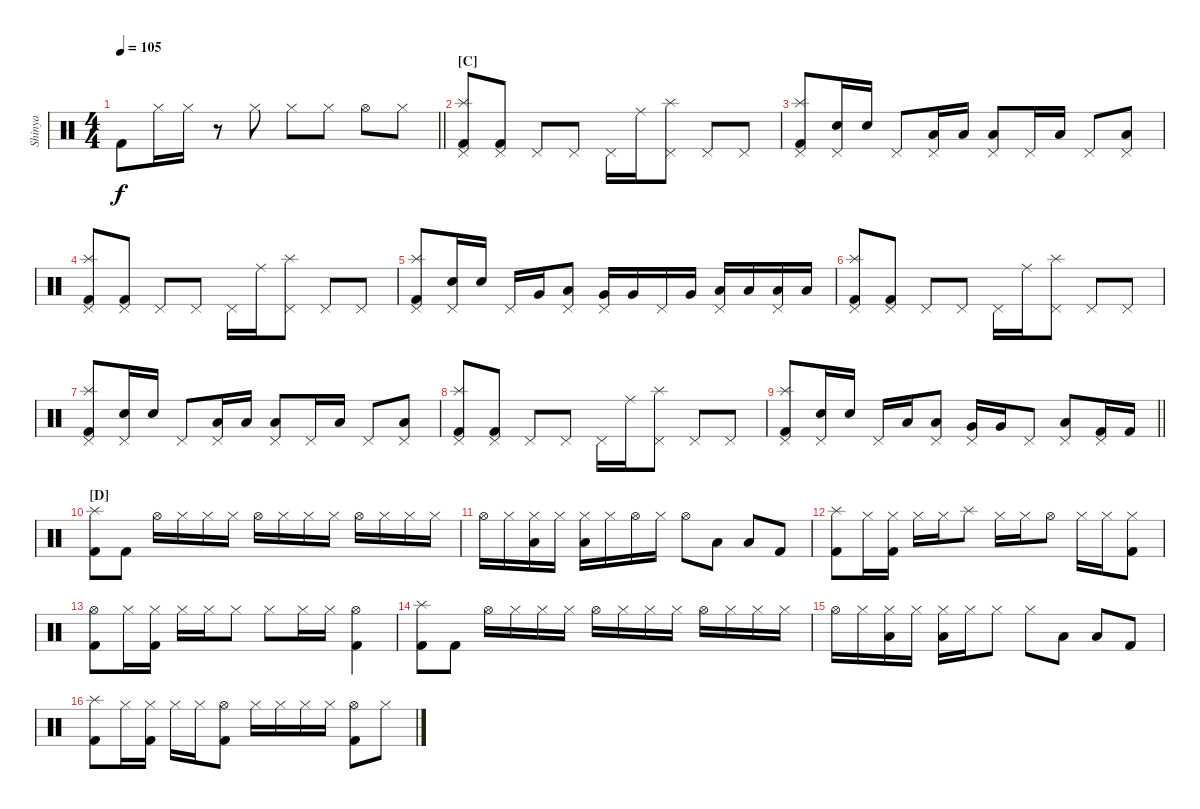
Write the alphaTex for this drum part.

\track ("Shinya" "Shinya") {instrument percussion}
\staff {score}
\articulation defaults
\ts (4 4)
\tempo 105
\clef neutral
\barLineRight lightlight
\ks c "Kick (hit) 2".8{dy f} "Hi-Hat (closed)".16 "Hi-Hat (closed)".16
r.8 "Hi-Hat (closed)".8 "Hi-Hat (closed)".8 "Hi-Hat (closed)".8 "Hi-Hat (open)".8 "Hi-Hat (closed)".8 |
\section ("" "[C]")
("Splash (hit)" "Pedal Hi-Hat (hit)" "Kick (hit) 2").8 ("Pedal Hi-Hat (hit)" "Kick (hit) 2").8 "Pedal Hi-Hat (hit)".8 "Pedal Hi-Hat (hit)".8 "Pedal Hi-Hat (hit)".16 "Ride (middle)".16 ("Splash (hit)" "Pedal Hi-Hat (hit)").8 "Pedal Hi-Hat (hit)".8 "Pedal Hi-Hat (hit)".8 |
("Splash (hit)" "Pedal Hi-Hat (hit)" "Kick (hit) 2").8 ("Snare (hit) 2" "Pedal Hi-Hat (hit)").16 "Snare (hit) 2".16 "Pedal Hi-Hat (hit)".8 ("Low Tom (hit)" "Pedal Hi-Hat (hit)").16 "Low Tom (hit)".16 ("Low Floor Tom (hit)" "Pedal Hi-Hat (hit)").8 "Pedal Hi-Hat (hit)".16 "Low Floor Tom (hit)".16 "Pedal Hi-Hat (hit)".8 ("Low Floor Tom (hit)" "Pedal Hi-Hat (hit)").8 |
("Splash (hit)" "Pedal Hi-Hat (hit)" "Kick (hit) 2").8 ("Pedal Hi-Hat (hit)" "Kick (hit) 2").8 "Pedal Hi-Hat (hit)".8 "Pedal Hi-Hat (hit)".8 "Pedal Hi-Hat (hit)".16 "Ride (middle)".16 ("Splash (hit)" "Pedal Hi-Hat (hit)").8 "Pedal Hi-Hat (hit)".8 "Pedal Hi-Hat (hit)".8 |
("Splash (hit)" "Pedal Hi-Hat (hit)" "Kick (hit) 2").8 ("Snare (hit) 2" "Pedal Hi-Hat (hit)").16 "Snare (hit) 2".16 "Pedal Hi-Hat (hit)".16 "Very Low Tom (hit)".16 ("Low Tom (hit)" "Pedal Hi-Hat (hit)").8 ("Very Low Tom (hit)" "Pedal Hi-Hat (hit)").16 "Very Low Tom (hit)".16 "Pedal Hi-Hat (hit)".16 "Very Low Tom (hit)".16 ("Low Floor Tom (hit)" "Pedal Hi-Hat (hit)").16 "Low Floor Tom (hit)".16 ("Low Floor Tom (hit)" "Pedal Hi-Hat (hit)").16 "Low Floor Tom (hit)".16 |
("Splash (hit)" "Pedal Hi-Hat (hit)" "Kick (hit) 2").8 ("Pedal Hi-Hat (hit)" "Kick (hit) 2").8 "Pedal Hi-Hat (hit)".8 "Pedal Hi-Hat (hit)".8 "Pedal Hi-Hat (hit)".16 "Ride (middle)".16 ("Splash (hit)" "Pedal Hi-Hat (hit)").8 "Pedal Hi-Hat (hit)".8 "Pedal Hi-Hat (hit)".8 |
("Splash (hit)" "Pedal Hi-Hat (hit)" "Kick (hit) 2").8 ("Snare (hit) 2" "Pedal Hi-Hat (hit)").16 "Snare (hit) 2".16 "Pedal Hi-Hat (hit)".8 ("Low Tom (hit)" "Pedal Hi-Hat (hit)").16 "Low Tom (hit)".16 ("Low Floor Tom (hit)" "Pedal Hi-Hat (hit)").8 "Pedal Hi-Hat (hit)".16 "Low Floor Tom (hit)".16 "Pedal Hi-Hat (hit)".8 ("Low Floor Tom (hit)" "Pedal Hi-Hat (hit)").8 |
("Splash (hit)" "Pedal Hi-Hat (hit)" "Kick (hit) 2").8 ("Pedal Hi-Hat (hit)" "Kick (hit) 2").8 "Pedal Hi-Hat (hit)".8 "Pedal Hi-Hat (hit)".8 "Pedal Hi-Hat (hit)".16 "Ride (middle)".16 ("Splash (hit)" "Pedal Hi-Hat (hit)").8 "Pedal Hi-Hat (hit)".8 "Pedal Hi-Hat (hit)".8 |
\barLineRight lightlight
("Splash (hit)" "Pedal Hi-Hat (hit)" "Kick (hit) 2").8 ("Snare (hit) 2" "Pedal Hi-Hat (hit)").16 "Snare (hit) 2".16 "Pedal Hi-Hat (hit)".16 "Low Tom (hit)".16 ("Low Tom (hit)" "Pedal Hi-Hat (hit)").8 ("Very Low Tom (hit)" "Pedal Hi-Hat (hit)").16 "Very Low Tom (hit)".16 "Pedal Hi-Hat (hit)".8 ("Low Floor Tom (hit)" "Pedal Hi-Hat (hit)").8 ("Pedal Hi-Hat (hit)" "Kick (hit) 2").16 "Kick (hit) 2".16 |
\section ("" "[D]")
("Splash (hit)" "Kick (hit) 2").8 "Kick (hit) 2".8 "Hi-Hat (open)".16 "Hi-Hat (closed)".16 "Hi-Hat (closed)".16 "Hi-Hat (closed)".16 "Hi-Hat (open)".16 "Hi-Hat (closed)".16 "Hi-Hat (closed)".16 "Hi-Hat (closed)".16 "Hi-Hat (open)".16 "Hi-Hat (closed)".16 "Hi-Hat (closed)".16 "Hi-Hat (closed)".16 |
"Hi-Hat (open)".16 "Hi-Hat (closed)".16 ("Hi-Hat (closed)" "Low Tom (hit)").16 "Hi-Hat (closed)".16 ("Hi-Hat (closed)" "Low Tom (hit)").16 "Hi-Hat (closed)".16 "Hi-Hat (open)".16 "Hi-Hat (closed)".16 "Hi-Hat (open)".8 "Low Tom (hit)".8 "Low Tom (hit)".8 "Kick (hit) 2".8 |
("Splash (hit)" "Kick (hit) 2").8 "Hi-Hat (closed)".16 ("Hi-Hat (closed)" "Kick (hit) 2").16 "Hi-Hat (closed)".16 "Hi-Hat (closed)".16 "Splash (hit)".8 "Hi-Hat (closed)".16 "Hi-Hat (closed)".16 "Hi-Hat (open)".8 "Hi-Hat (closed)".16 "Hi-Hat (closed)".16 ("Hi-Hat (closed)" "Kick (hit) 2").8 |
("Hi-Hat (open)" "Kick (hit) 2").8 "Hi-Hat (closed)".16 ("Hi-Hat (closed)" "Kick (hit) 2").16 "Hi-Hat (closed)".16 "Hi-Hat (closed)".16 "Hi-Hat (closed)".8 "Hi-Hat (closed)".8 "Hi-Hat (closed)".16 "Hi-Hat (closed)".16 ("Hi-Hat (open)" "Kick (hit) 2").4 |
("Splash (hit)" "Kick (hit) 2").8 "Kick (hit) 2".8 "Hi-Hat (open)".16 "Hi-Hat (closed)".16 "Hi-Hat (closed)".16 "Hi-Hat (closed)".16 "Hi-Hat (open)".16 "Hi-Hat (closed)".16 "Hi-Hat (closed)".16 "Hi-Hat (closed)".16 "Hi-Hat (open)".16 "Hi-Hat (closed)".16 "Hi-Hat (closed)".16 "Hi-Hat (closed)".16 |
"Hi-Hat (open)".16 "Hi-Hat (closed)".16 ("Hi-Hat (closed)" "Low Tom (hit)").16 "Hi-Hat (closed)".16 ("Hi-Hat (closed)" "Low Tom (hit)").16 "Hi-Hat (closed)".16 "Hi-Hat (closed)".8 "Hi-Hat (closed)".8 "Low Tom (hit)".8 "Low Tom (hit)".8 "Kick (hit) 2".8 |
("Splash (hit)" "Kick (hit) 2").8 "Hi-Hat (closed)".16 ("Hi-Hat (closed)" "Kick (hit) 2").16 "Hi-Hat (closed)".16 "Hi-Hat (closed)".16 ("Hi-Hat (open)" "Kick (hit) 2").8 "Hi-Hat (closed)".16 "Hi-Hat (closed)".16 "Hi-Hat (closed)".16 "Hi-Hat (closed)".16 ("Hi-Hat (open)" "Kick (hit) 2").8 "Hi-Hat (closed)".8
